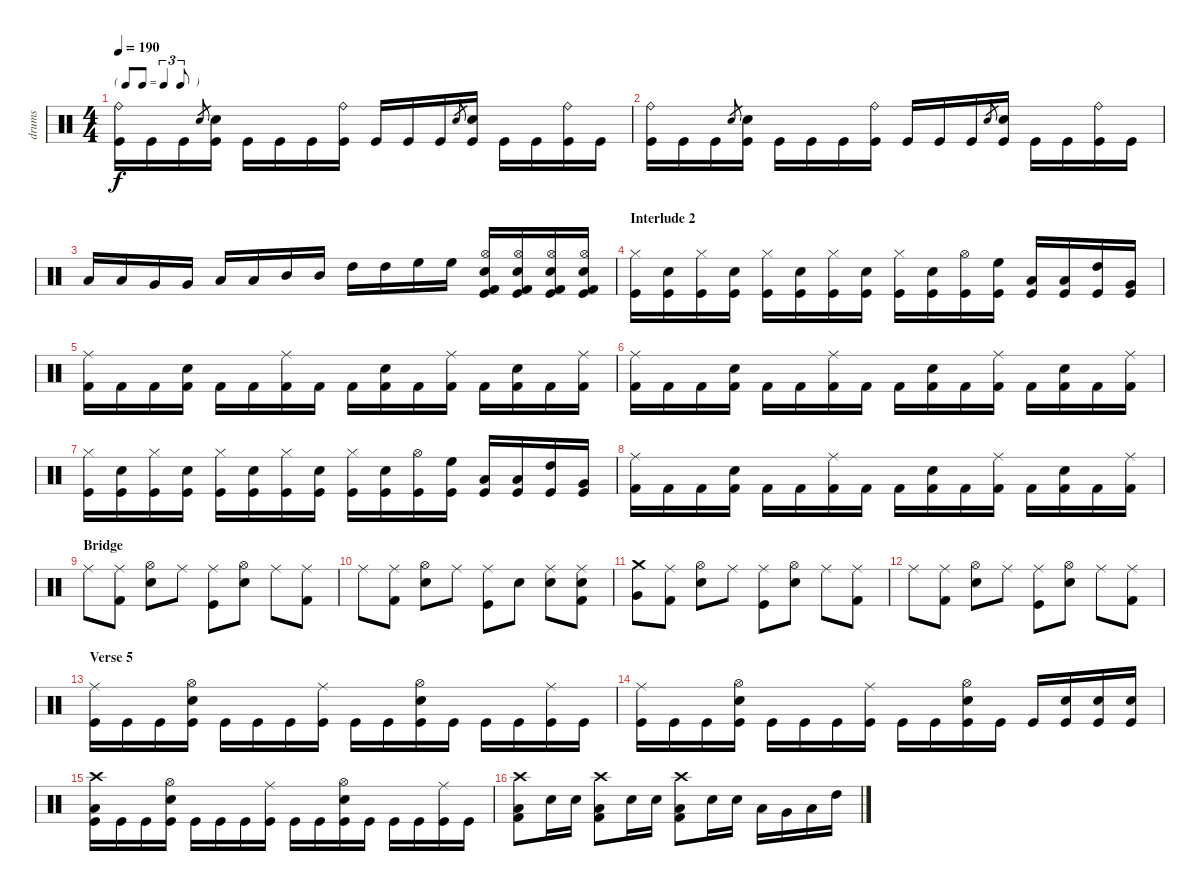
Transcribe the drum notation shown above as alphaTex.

\track ("drums" "drums") {instrument percussion}
\staff {score}
\articulation defaults
\ts (4 4)
\tf triplet8th
\tempo 190
\clef neutral
\ks c
("Kick (hit)" "Ride (bell)").16{dy f} "Kick (hit)".16 "Kick (hit)".16 "Electric Snare (hit)".8{gr} ("Kick (hit)" "Electric Snare (hit)").16 "Kick (hit)".16 "Kick (hit)".16 "Kick (hit)".16 ("Kick (hit)" "Ride (bell)").16 "Kick (hit)".16 "Kick (hit)".16 "Kick (hit)".16 "Electric Snare (hit)".8{gr} ("Kick (hit)" "Electric Snare (hit)").16 "Kick (hit)".16 "Kick (hit)".16 ("Kick (hit)" "Ride (bell)").16 "Kick (hit)".16 |
("Kick (hit)" "Ride (bell)").16 "Kick (hit)".16 "Kick (hit)".16 "Electric Snare (hit)".8{gr} ("Kick (hit)" "Electric Snare (hit)").16 "Kick (hit)".16 "Kick (hit)".16 "Kick (hit)".16 ("Kick (hit)" "Ride (bell)").16 "Kick (hit)".16 "Kick (hit)".16 "Kick (hit)".16 "Electric Snare (hit)".8{gr} ("Kick (hit)" "Electric Snare (hit)").16 "Kick (hit)".16 "Kick (hit)".16 ("Kick (hit)" "Ride (bell)").16 "Kick (hit)".16 |
"Low Floor Tom (hit)".16 "Low Floor Tom (hit)".16 "Very Low Tom (hit)".16 "Very Low Tom (hit)".16 "Low Tom (hit)".16 "Low Tom (hit)".16 "Mid Tom (hit)".16 "Mid Tom (hit)".16 "High Tom (hit)".16 "High Tom (hit)".16 "High Floor Tom (hit)".16 "High Floor Tom (hit)".16 ("Hi-Hat (open)" "Snare (hit) 2" "Kick (hit) 2" "Kick (hit)").16 ("Hi-Hat (open)" "Snare (hit) 2" "Kick (hit) 2" "Kick (hit)").16 ("Hi-Hat (open)" "Snare (hit) 2" "Kick (hit) 2" "Kick (hit)").16 ("Hi-Hat (open)" "Snare (hit) 2" "Kick (hit) 2" "Kick (hit)").16 |
\section ("" "Interlude 2")
("Hi-Hat (closed)" "Kick (hit)").16 ("Electric Snare (hit)" "Kick (hit)").16 ("Hi-Hat (closed)" "Kick (hit)").16 ("Electric Snare (hit)" "Kick (hit)").16 ("Hi-Hat (closed)" "Kick (hit)").16 ("Electric Snare (hit)" "Kick (hit)").16 ("Hi-Hat (closed)" "Kick (hit)").16 ("Electric Snare (hit)" "Kick (hit)").16 ("Hi-Hat (closed)" "Kick (hit)").16 ("Electric Snare (hit)" "Kick (hit)").16 ("Hi-Hat (open)" "Kick (hit)").16 ("High Floor Tom (hit)" "Kick (hit)").16 ("Low Floor Tom (hit)" "Kick (hit)").16 ("Low Tom (hit)" "Kick (hit)").16 ("High Tom (hit)" "Kick (hit)").16 ("Very Low Tom (hit)" "Kick (hit)").16 |
("Ride (middle)" "Kick (hit) 2").16 "Kick (hit) 2".16 "Kick (hit) 2".16 ("Snare (hit) 2" "Kick (hit) 2").16 "Kick (hit) 2".16 "Kick (hit) 2".16 ("Ride (middle)" "Kick (hit) 2").16 "Kick (hit) 2".16 "Kick (hit) 2".16 ("Snare (hit) 2" "Kick (hit) 2").16 "Kick (hit) 2".16 ("Ride (middle)" "Kick (hit) 2").16 "Kick (hit) 2".16 ("Snare (hit) 2" "Kick (hit) 2").16 "Kick (hit) 2".16 ("Ride (middle)" "Kick (hit) 2").16 |
("Ride (middle)" "Kick (hit) 2").16 "Kick (hit) 2".16 "Kick (hit) 2".16 ("Snare (hit) 2" "Kick (hit) 2").16 "Kick (hit) 2".16 "Kick (hit) 2".16 ("Ride (middle)" "Kick (hit) 2").16 "Kick (hit) 2".16 "Kick (hit) 2".16 ("Snare (hit) 2" "Kick (hit) 2").16 "Kick (hit) 2".16 ("Ride (middle)" "Kick (hit) 2").16 "Kick (hit) 2".16 ("Snare (hit) 2" "Kick (hit) 2").16 "Kick (hit) 2".16 ("Ride (middle)" "Kick (hit) 2").16 |
("Hi-Hat (closed)" "Kick (hit)").16 ("Electric Snare (hit)" "Kick (hit)").16 ("Hi-Hat (closed)" "Kick (hit)").16 ("Electric Snare (hit)" "Kick (hit)").16 ("Hi-Hat (closed)" "Kick (hit)").16 ("Electric Snare (hit)" "Kick (hit)").16 ("Hi-Hat (closed)" "Kick (hit)").16 ("Electric Snare (hit)" "Kick (hit)").16 ("Hi-Hat (closed)" "Kick (hit)").16 ("Electric Snare (hit)" "Kick (hit)").16 ("Hi-Hat (open)" "Kick (hit)").16 ("High Floor Tom (hit)" "Kick (hit)").16 ("Low Floor Tom (hit)" "Kick (hit)").16 ("Low Tom (hit)" "Kick (hit)").16 ("High Tom (hit)" "Kick (hit)").16 ("Very Low Tom (hit)" "Kick (hit)").16 |
("Ride (middle)" "Kick (hit) 2").16 "Kick (hit) 2".16 "Kick (hit) 2".16 ("Snare (hit) 2" "Kick (hit) 2").16 "Kick (hit) 2".16 "Kick (hit) 2".16 ("Ride (middle)" "Kick (hit) 2").16 "Kick (hit) 2".16 "Kick (hit) 2".16 ("Snare (hit) 2" "Kick (hit) 2").16 "Kick (hit) 2".16 ("Ride (middle)" "Kick (hit) 2").16 "Kick (hit) 2".16 ("Snare (hit) 2" "Kick (hit) 2").16 "Kick (hit) 2".16 ("Ride (middle)" "Kick (hit) 2").16 |
\section ("" "Bridge")
"Ride (middle)".8 ("Ride (middle)" "Kick (hit) 2").8 ("Hi-Hat (open)" "Snare (hit) 2").8 "Ride (middle)".8 ("Ride (middle)" "Kick (hit)").8 ("Hi-Hat (open)" "Snare (hit) 2").8 "Ride (middle)".8 ("Ride (middle)" "Kick (hit) 2").8 |
"Ride (middle)".8 ("Ride (middle)" "Kick (hit) 2").8 ("Hi-Hat (open)" "Snare (hit) 2").8 "Ride (middle)".8 ("Ride (middle)" "Kick (hit)").8 "Snare (hit) 2".8 ("Ride (middle)" "Snare (hit) 2").8 ("Ride (middle)" "Snare (hit) 2" "Kick (hit) 2").8 |
("Crash medium (hit)" "Very Low Tom (hit)").8 ("Ride (middle)" "Kick (hit) 2").8 ("Hi-Hat (open)" "Snare (hit) 2").8 "Ride (middle)".8 ("Ride (middle)" "Kick (hit)").8 ("Hi-Hat (open)" "Snare (hit) 2").8 "Ride (middle)".8 ("Ride (middle)" "Kick (hit) 2").8 |
"Ride (middle)".8 ("Ride (middle)" "Kick (hit) 2").8 ("Hi-Hat (open)" "Snare (hit) 2").8 "Ride (middle)".8 ("Ride (middle)" "Kick (hit)").8 ("Hi-Hat (open)" "Snare (hit) 2").8 "Ride (middle)".8 ("Ride (middle)" "Kick (hit) 2").8 |
\section ("" "Verse 5")
("Ride (middle)" "Kick (hit)").16 "Kick (hit)".16 "Kick (hit)".16 ("Hi-Hat (open)" "Electric Snare (hit)" "Kick (hit)").16 "Kick (hit)".16 "Kick (hit)".16 "Kick (hit)".16 ("Ride (middle)" "Kick (hit)").16 "Kick (hit)".16 "Kick (hit)".16 ("Hi-Hat (open)" "Electric Snare (hit)" "Kick (hit)").16 "Kick (hit)".16 "Kick (hit)".16 "Kick (hit)".16 ("Ride (middle)" "Kick (hit)").16 "Kick (hit)".16 |
("Ride (middle)" "Kick (hit)").16 "Kick (hit)".16 "Kick (hit)".16 ("Hi-Hat (open)" "Electric Snare (hit)" "Kick (hit)").16 "Kick (hit)".16 "Kick (hit)".16 "Kick (hit)".16 ("Ride (middle)" "Kick (hit)").16 "Kick (hit)".16 "Kick (hit)".16 ("Hi-Hat (open)" "Electric Snare (hit)" "Kick (hit)").16 "Kick (hit)".16 "Kick (hit)".16 ("Snare (hit) 2" "Kick (hit)").16 ("Snare (hit) 2" "Kick (hit)").16 ("Snare (hit) 2" "Kick (hit)").16 |
("Crash high (hit)" "Low Tom (hit)" "Kick (hit)").16 "Kick (hit)".16 "Kick (hit)".16 ("Hi-Hat (open)" "Electric Snare (hit)" "Kick (hit)").16 "Kick (hit)".16 "Kick (hit)".16 "Kick (hit)".16 ("Ride (middle)" "Kick (hit)").16 "Kick (hit)".16 "Kick (hit)".16 ("Hi-Hat (open)" "Electric Snare (hit)" "Kick (hit)").16 "Kick (hit)".16 "Kick (hit)".16 "Kick (hit)".16 ("Ride (middle)" "Kick (hit)").16 "Kick (hit)".16 |
("Crash high (hit)" "Low Floor Tom (hit)" "Kick (hit) 2").8 "Snare (hit) 2".16 "Snare (hit) 2".16 ("Crash high (hit)" "Low Floor Tom (hit)" "Kick (hit) 2").8 "Snare (hit) 2".16 "Snare (hit) 2".16 ("Crash high (hit)" "Low Floor Tom (hit)" "Kick (hit) 2").8 "Snare (hit) 2".16 "Snare (hit) 2".16 "Low Floor Tom (hit)".16 "Very Low Tom (hit)".16 "Low Tom (hit)".16 "High Tom (hit)".16
